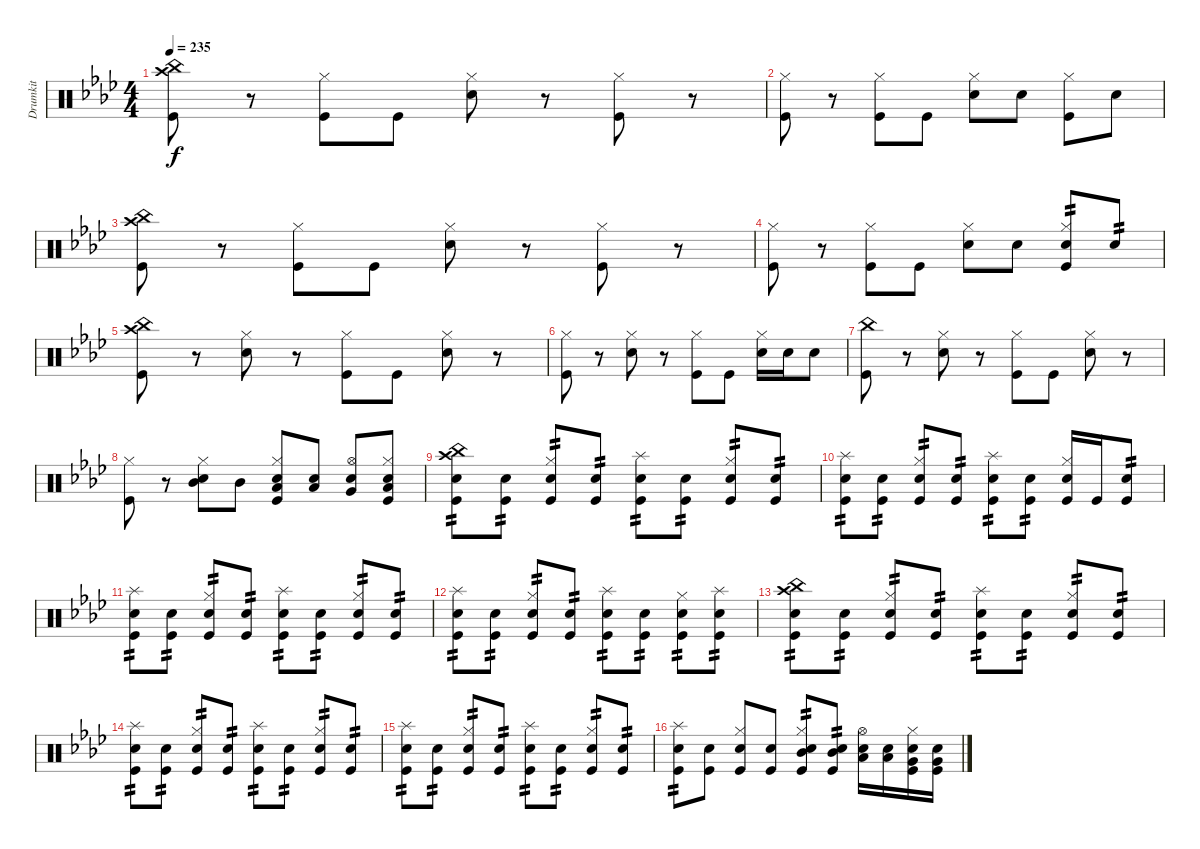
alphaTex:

\track ("Drumkit" "Drumkit") {instrument percussion}
\staff {score}
\articulation defaults
\ts (4 4)
\tempo 235
\clef neutral
\ks ab
("Crash high (hit)" "China (hit)" "Kick (hit)").8{dy f} r.8 ("Hi-Hat (closed)" "Kick (hit)").8 "Kick (hit)".8 ("Hi-Hat (closed)" "Electric Snare (hit)").8 r.8 ("Hi-Hat (closed)" "Kick (hit)").8 r.8 |
("Hi-Hat (closed)" "Kick (hit)").8 r.8 ("Hi-Hat (closed)" "Kick (hit)").8 "Kick (hit)".8 ("Hi-Hat (closed)" "Electric Snare (hit)").8 "Electric Snare (hit)".8 ("Hi-Hat (closed)" "Kick (hit)").8 "Electric Snare (hit)".8 |
("Crash high (hit)" "China (hit)" "Kick (hit)").8 r.8 ("Hi-Hat (closed)" "Kick (hit)").8 "Kick (hit)".8 ("Hi-Hat (closed)" "Electric Snare (hit)").8 r.8 ("Hi-Hat (closed)" "Kick (hit)").8 r.8 |
("Hi-Hat (closed)" "Kick (hit)").8 r.8 ("Hi-Hat (closed)" "Kick (hit)").8 "Kick (hit)".8 ("Hi-Hat (closed)" "Electric Snare (hit)").8 "Electric Snare (hit)".8 ("Hi-Hat (closed)" "Electric Snare (hit)" "Kick (hit)").8{tp 2} "Electric Snare (hit)".8{tp 2} |
("Crash high (hit)" "China (hit)" "Kick (hit)").8 r.8 ("Hi-Hat (closed)" "Electric Snare (hit)").8 r.8 ("Hi-Hat (closed)" "Kick (hit)").8 "Kick (hit)".8 ("Hi-Hat (closed)" "Electric Snare (hit)").8 r.8 |
("Hi-Hat (closed)" "Kick (hit)").8 r.8 ("Hi-Hat (closed)" "Electric Snare (hit)").8 r.8 ("Hi-Hat (closed)" "Kick (hit)").8 "Kick (hit)".8 ("Hi-Hat (closed)" "Electric Snare (hit)").16 "Electric Snare (hit)".16 "Electric Snare (hit)".8 |
("China (hit)" "Kick (hit)").8 r.8 ("Hi-Hat (closed)" "Electric Snare (hit)").8 r.8 ("Hi-Hat (closed)" "Kick (hit)").8 "Kick (hit)".8 ("Hi-Hat (closed)" "Electric Snare (hit)").8 r.8 |
("Hi-Hat (closed)" "Kick (hit)").8 r.8 ("Hi-Hat (closed)" "Mid Tom (hit)" "Electric Snare (hit)").8 "Mid Tom (hit)".8 ("Hi-Hat (closed)" "Low Tom (hit)" "Electric Snare (hit)" "Kick (hit)").8 ("Low Tom (hit)" "Electric Snare (hit)").8 ("Hi-Hat (open)" "Very Low Tom (hit)" "Electric Snare (hit)").8 ("Hi-Hat (closed)" "Low Floor Tom (hit)" "Electric Snare (hit)" "Kick (hit)").8 |
("Crash high (hit)" "China (hit)" "Electric Snare (hit)" "Kick (hit)").8{tp 2} ("Electric Snare (hit)" "Kick (hit)").8{tp 2} ("Hi-Hat (closed)" "Electric Snare (hit)" "Kick (hit)").8{tp 2} ("Electric Snare (hit)" "Kick (hit)").8{tp 2} ("Splash (hit)" "Electric Snare (hit)" "Kick (hit)").8{tp 2} ("Electric Snare (hit)" "Kick (hit)").8{tp 2} ("Hi-Hat (closed)" "Electric Snare (hit)" "Kick (hit)").8{tp 2} ("Electric Snare (hit)" "Kick (hit)").8{tp 2} |
("Splash (hit)" "Electric Snare (hit)" "Kick (hit)").8{tp 2} ("Electric Snare (hit)" "Kick (hit)").8{tp 2} ("Hi-Hat (closed)" "Electric Snare (hit)" "Kick (hit)").8{tp 2} ("Electric Snare (hit)" "Kick (hit)").8{tp 2} ("Splash (hit)" "Electric Snare (hit)" "Kick (hit)").8{tp 2} ("Electric Snare (hit)" "Kick (hit)").8{tp 2} ("Hi-Hat (closed)" "Electric Snare (hit)" "Kick (hit)").16 "Kick (hit)".16 ("Electric Snare (hit)" "Kick (hit)").8{tp 2} |
("Splash (hit)" "Electric Snare (hit)" "Kick (hit)").8{tp 2} ("Electric Snare (hit)" "Kick (hit)").8{tp 2} ("Hi-Hat (closed)" "Electric Snare (hit)" "Kick (hit)").8{tp 2} ("Electric Snare (hit)" "Kick (hit)").8{tp 2} ("Splash (hit)" "Electric Snare (hit)" "Kick (hit)").8{tp 2} ("Electric Snare (hit)" "Kick (hit)").8{tp 2} ("Hi-Hat (closed)" "Electric Snare (hit)" "Kick (hit)").8{tp 2} ("Electric Snare (hit)" "Kick (hit)").8{tp 2} |
("Splash (hit)" "Electric Snare (hit)" "Kick (hit)").8{tp 2} ("Electric Snare (hit)" "Kick (hit)").8{tp 2} ("Hi-Hat (closed)" "Electric Snare (hit)" "Kick (hit)").8{tp 2} ("Electric Snare (hit)" "Kick (hit)").8{tp 2} ("Splash (hit)" "Electric Snare (hit)" "Kick (hit)").8{tp 2} ("Electric Snare (hit)" "Kick (hit)").8{tp 2} ("Hi-Hat (closed)" "Electric Snare (hit)" "Kick (hit)").8{tp 2} ("Splash (hit)" "Electric Snare (hit)" "Kick (hit)").8{tp 2} |
("Crash high (hit)" "China (hit)" "Electric Snare (hit)" "Kick (hit)").8{tp 2} ("Electric Snare (hit)" "Kick (hit)").8{tp 2} ("Hi-Hat (closed)" "Electric Snare (hit)" "Kick (hit)").8{tp 2} ("Electric Snare (hit)" "Kick (hit)").8{tp 2} ("Splash (hit)" "Electric Snare (hit)" "Kick (hit)").8{tp 2} ("Electric Snare (hit)" "Kick (hit)").8{tp 2} ("Hi-Hat (closed)" "Electric Snare (hit)" "Kick (hit)").8{tp 2} ("Electric Snare (hit)" "Kick (hit)").8{tp 2} |
("Splash (hit)" "Electric Snare (hit)" "Kick (hit)").8{tp 2} ("Electric Snare (hit)" "Kick (hit)").8{tp 2} ("Hi-Hat (closed)" "Electric Snare (hit)" "Kick (hit)").8{tp 2} ("Electric Snare (hit)" "Kick (hit)").8{tp 2} ("Splash (hit)" "Electric Snare (hit)" "Kick (hit)").8{tp 2} ("Electric Snare (hit)" "Kick (hit)").8{tp 2} ("Hi-Hat (closed)" "Electric Snare (hit)" "Kick (hit)").8{tp 2} ("Electric Snare (hit)" "Kick (hit)").8{tp 2} |
("Splash (hit)" "Electric Snare (hit)" "Kick (hit)").8{tp 2} ("Electric Snare (hit)" "Kick (hit)").8{tp 2} ("Hi-Hat (closed)" "Electric Snare (hit)" "Kick (hit)").8{tp 2} ("Electric Snare (hit)" "Kick (hit)").8{tp 2} ("Splash (hit)" "Electric Snare (hit)" "Kick (hit)").8{tp 2} ("Electric Snare (hit)" "Kick (hit)").8{tp 2} ("Hi-Hat (closed)" "Electric Snare (hit)" "Kick (hit)").8{tp 2} ("Electric Snare (hit)" "Kick (hit)").8{tp 2} |
("Splash (hit)" "Electric Snare (hit)" "Kick (hit)").8{tp 2} ("Electric Snare (hit)" "Kick (hit)").8 ("Hi-Hat (closed)" "Electric Snare (hit)" "Kick (hit)").8 ("Electric Snare (hit)" "Kick (hit)").8 ("Hi-Hat (closed)" "Mid Tom (hit)" "Electric Snare (hit)" "Kick (hit)").8{tp 2} ("Mid Tom (hit)" "Electric Snare (hit)" "Kick (hit)").8{tp 2} ("Hi-Hat (open)" "Low Tom (hit)" "Electric Snare (hit)").16 ("Low Tom (hit)" "Electric Snare (hit)").16 ("Hi-Hat (closed)" "Very Low Tom (hit)" "Electric Snare (hit)" "Kick (hit)").16 ("Very Low Tom (hit)" "Electric Snare (hit)" "Kick (hit)").16
